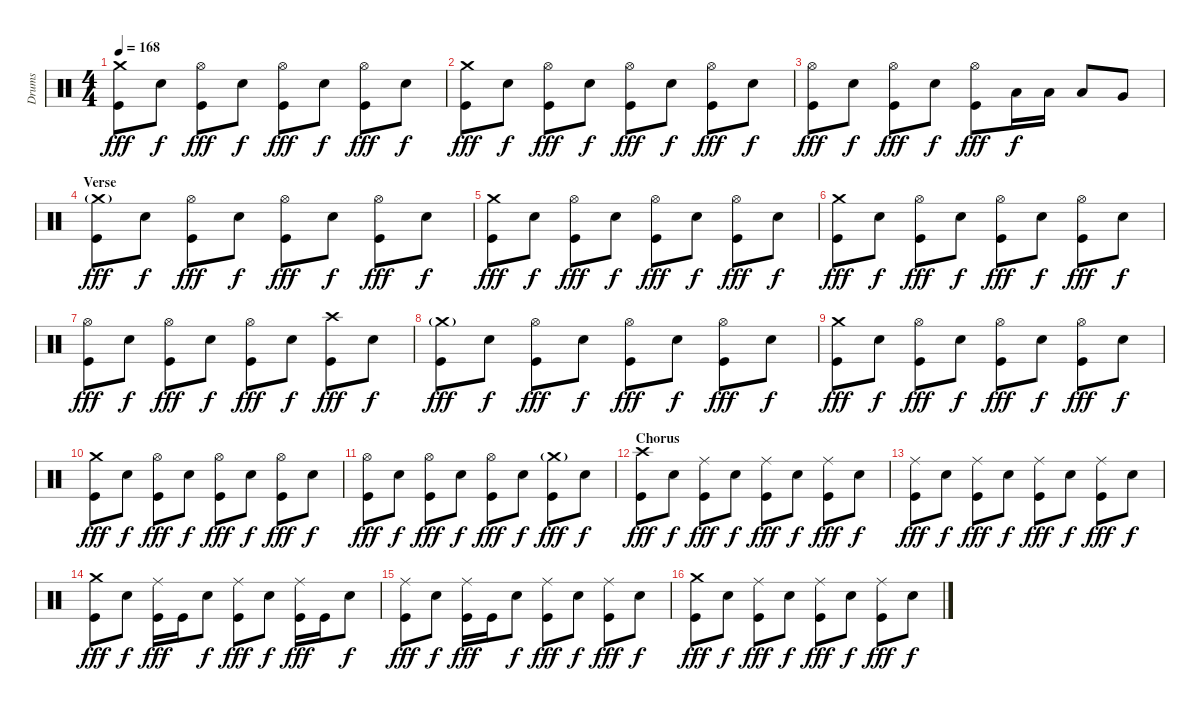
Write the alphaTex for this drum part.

\track ("Drums" "Drums") {instrument percussion}
\staff {score}
\articulation defaults
\ts (4 4)
\tempo 168
\clef neutral
\ks c
("Crash medium (hit)" "Kick (hit)").8{dy fff} "Snare (hit) 2".8{dy f} ("Hi-Hat (open)" "Kick (hit)").8{dy fff} "Snare (hit) 2".8{dy f} ("Hi-Hat (open)" "Kick (hit)").8{dy fff} "Snare (hit) 2".8{dy f} ("Hi-Hat (open)" "Kick (hit)").8{dy fff} "Snare (hit) 2".8{dy f} |
("Crash medium (hit)" "Kick (hit)").8{dy fff} "Snare (hit) 2".8{dy f} ("Hi-Hat (open)" "Kick (hit)").8{dy fff} "Snare (hit) 2".8{dy f} ("Hi-Hat (open)" "Kick (hit)").8{dy fff} "Snare (hit) 2".8{dy f} ("Hi-Hat (open)" "Kick (hit)").8{dy fff} "Snare (hit) 2".8{dy f} |
("Hi-Hat (open)" "Kick (hit)").8{dy fff} "Snare (hit) 2".8{dy f} ("Hi-Hat (open)" "Kick (hit)").8{dy fff} "Snare (hit) 2".8{dy f} ("Hi-Hat (open)" "Kick (hit)").8{dy fff} "Low Tom (hit)".16{dy f} "Low Tom (hit)".16 "Low Tom (hit)".8 "Very Low Tom (hit)".8 |
\section ("" "Verse")
("Crash medium (hit)"{g} "Kick (hit)").8{dy fff} "Snare (hit) 2".8{dy f} ("Hi-Hat (open)" "Kick (hit)").8{dy fff} "Snare (hit) 2".8{dy f} ("Hi-Hat (open)" "Kick (hit)").8{dy fff} "Snare (hit) 2".8{dy f} ("Hi-Hat (open)" "Kick (hit)").8{dy fff} "Snare (hit) 2".8{dy f} |
("Crash medium (hit)" "Kick (hit)").8{dy fff} "Snare (hit) 2".8{dy f} ("Hi-Hat (open)" "Kick (hit)").8{dy fff} "Snare (hit) 2".8{dy f} ("Hi-Hat (open)" "Kick (hit)").8{dy fff} "Snare (hit) 2".8{dy f} ("Hi-Hat (open)" "Kick (hit)").8{dy fff} "Snare (hit) 2".8{dy f} |
("Crash medium (hit)" "Kick (hit)").8{dy fff} "Snare (hit) 2".8{dy f} ("Hi-Hat (open)" "Kick (hit)").8{dy fff} "Snare (hit) 2".8{dy f} ("Hi-Hat (open)" "Kick (hit)").8{dy fff} "Snare (hit) 2".8{dy f} ("Hi-Hat (open)" "Kick (hit)").8{dy fff} "Snare (hit) 2".8{dy f} |
("Hi-Hat (open)" "Kick (hit)").8{dy fff} "Snare (hit) 2".8{dy f} ("Hi-Hat (open)" "Kick (hit)").8{dy fff} "Snare (hit) 2".8{dy f} ("Hi-Hat (open)" "Kick (hit)").8{dy fff} "Snare (hit) 2".8{dy f} ("Crash high (hit)" "Kick (hit)").8{dy fff} "Snare (hit) 2".8{dy f} |
("Crash medium (hit)"{g} "Kick (hit)").8{dy fff} "Snare (hit) 2".8{dy f} ("Hi-Hat (open)" "Kick (hit)").8{dy fff} "Snare (hit) 2".8{dy f} ("Hi-Hat (open)" "Kick (hit)").8{dy fff} "Snare (hit) 2".8{dy f} ("Hi-Hat (open)" "Kick (hit)").8{dy fff} "Snare (hit) 2".8{dy f} |
("Crash medium (hit)" "Kick (hit)").8{dy fff} "Snare (hit) 2".8{dy f} ("Hi-Hat (open)" "Kick (hit)").8{dy fff} "Snare (hit) 2".8{dy f} ("Hi-Hat (open)" "Kick (hit)").8{dy fff} "Snare (hit) 2".8{dy f} ("Hi-Hat (open)" "Kick (hit)").8{dy fff} "Snare (hit) 2".8{dy f} |
("Crash medium (hit)" "Kick (hit)").8{dy fff} "Snare (hit) 2".8{dy f} ("Hi-Hat (open)" "Kick (hit)").8{dy fff} "Snare (hit) 2".8{dy f} ("Hi-Hat (open)" "Kick (hit)").8{dy fff} "Snare (hit) 2".8{dy f} ("Hi-Hat (open)" "Kick (hit)").8{dy fff} "Snare (hit) 2".8{dy f} |
("Hi-Hat (open)" "Kick (hit)").8{dy fff} "Snare (hit) 2".8{dy f} ("Hi-Hat (open)" "Kick (hit)").8{dy fff} "Snare (hit) 2".8{dy f} ("Hi-Hat (open)" "Kick (hit)").8{dy fff} "Snare (hit) 2".8{dy f} ("Crash medium (hit)"{g} "Kick (hit)").8{dy fff} "Snare (hit) 2".8{dy f} |
\section ("" "Chorus")
("Crash high (hit)" "Kick (hit)").8{dy fff} "Snare (hit) 2".8{dy f} ("Ride (middle)" "Kick (hit)").8{dy fff} "Snare (hit) 2".8{dy f} ("Ride (middle)" "Kick (hit)").8{dy fff} "Snare (hit) 2".8{dy f} ("Ride (middle)" "Kick (hit)").8{dy fff} "Snare (hit) 2".8{dy f} |
("Ride (middle)" "Kick (hit)").8{dy fff} "Snare (hit) 2".8{dy f} ("Ride (middle)" "Kick (hit)").8{dy fff} "Snare (hit) 2".8{dy f} ("Ride (middle)" "Kick (hit)").8{dy fff} "Snare (hit) 2".8{dy f} ("Ride (middle)" "Kick (hit)").8{dy fff} "Snare (hit) 2".8{dy f} |
("Crash medium (hit)" "Kick (hit)").8{dy fff} "Snare (hit) 2".8{dy f} ("Ride (middle)" "Kick (hit)").16{dy fff} "Kick (hit)".16 "Snare (hit) 2".8{dy f} ("Ride (middle)" "Kick (hit)").8{dy fff} "Snare (hit) 2".8{dy f} ("Ride (middle)" "Kick (hit)").16{dy fff} "Kick (hit)".16 "Snare (hit) 2".8{dy f} |
("Ride (middle)" "Kick (hit)").8{dy fff} "Snare (hit) 2".8{dy f} ("Ride (middle)" "Kick (hit)").16{dy fff} "Kick (hit)".16 "Snare (hit) 2".8{dy f} ("Ride (middle)" "Kick (hit)").8{dy fff} "Snare (hit) 2".8{dy f} ("Ride (middle)" "Kick (hit)").8{dy fff} "Snare (hit) 2".8{dy f} |
("Crash medium (hit)" "Kick (hit)").8{dy fff} "Snare (hit) 2".8{dy f} ("Ride (middle)" "Kick (hit)").8{dy fff} "Snare (hit) 2".8{dy f} ("Ride (middle)" "Kick (hit)").8{dy fff} "Snare (hit) 2".8{dy f} ("Ride (middle)" "Kick (hit)").8{dy fff} "Snare (hit) 2".8{dy f}
